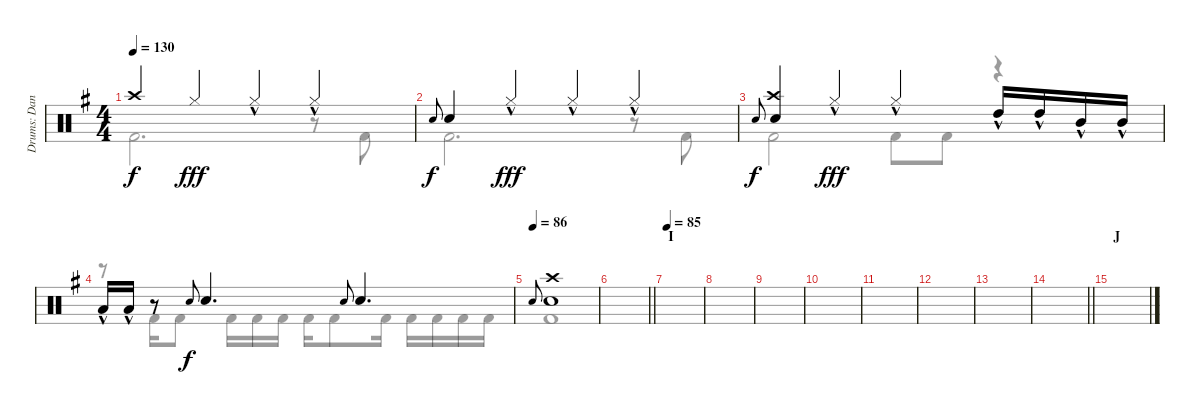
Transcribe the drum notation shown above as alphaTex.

\track ("Drums: Dana" "Drums: Dan") {instrument percussion}
\staff {score}
\articulation defaults
\voice
\ts (4 4)
\tempo 130
\clef neutral
\ks g "Crash high (hit)".4{dy f} "Hi-Hat (closed)".4{dy fff} "Hi-Hat (closed)"{hac}.4 "Hi-Hat (closed)"{hac}.4
|
"Electric Snare (hit)".8{gr onbeat dy f} "Snare (hit) 2".4 "Hi-Hat (closed)"{hac}.4{dy fff} "Hi-Hat (closed)"{hac}.4 "Hi-Hat (closed)"{hac}.4 |
"Electric Snare (hit)".8{gr onbeat dy f} ("Crash high (hit)" "Snare (hit) 2").4 "Hi-Hat (closed)"{hac}.4{dy fff} "Hi-Hat (closed)"{hac}.4 "High Tom (hit)"{hac}.16 "High Tom (hit)"{hac}.16 "Mid Tom (hit)"{hac}.16 "Mid Tom (hit)"{hac}.16 |
"Low Tom (hit)"{hac}.16 "Low Tom (hit)"{hac}.16 r.8 "Electric Snare (hit)".8{gr onbeat dy f} "Snare (hit) 2".4{d} "Electric Snare (hit)".8{gr onbeat} "Snare (hit) 2".4{d} |
\tempo (86 0.03125)
"Electric Snare (hit)".8{gr onbeat} ("Crash high (hit)" "Snare (hit) 2").1 |
\barLineRight lightlight
|
\section ("" "I")
\tempo 85
|
|
|
|
|
|
|
\barLineRight lightlight
|
\section ("" "J")
|
\voice
\clef neutral
\ottava regular
\simile none
\ks g "Kick (hit) 2".2{d dy f}
r.8 "Kick (hit) 2".8 |
"Kick (hit) 2".2{d} r.8 "Kick (hit) 2".8 |
"Kick (hit) 2".2 "Kick (hit) 2".8 "Kick (hit) 2".8 r.4 |
r.8 "Kick (hit) 2".16 "Kick (hit) 2".8 "Kick (hit) 2".16 "Kick (hit) 2".16 "Kick (hit) 2".16 "Kick (hit) 2".16 "Kick (hit) 2".8 "Kick (hit) 2".16 "Kick (hit) 2".16 "Kick (hit) 2".16 "Kick (hit) 2".16 "Kick (hit) 2".16 |
"Kick (hit) 2".1 |
\barLineRight lightlight
|
|
|
|
|
|
|
|
\barLineRight lightlight
|
|
